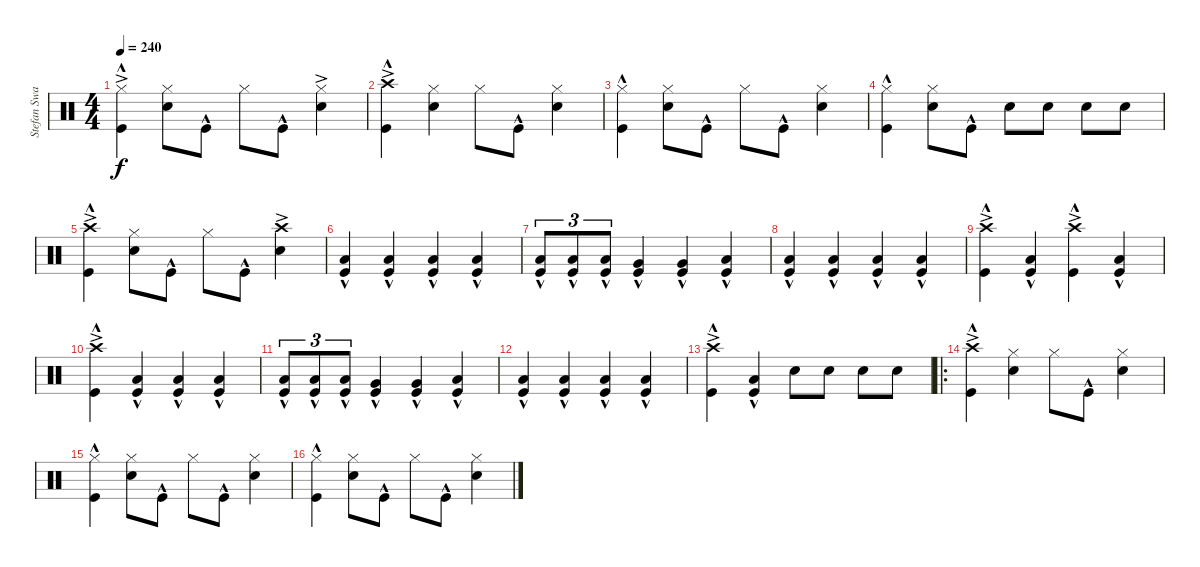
\track ("Stefan Swarztmann" "Stefan Swa") {instrument percussion}
\staff {score}
\articulation defaults
\ts (4 4)
\tempo 240
\clef neutral
\ks c
("Hi-Hat (closed)"{ac} "Kick (hit)"{hac}).4{dy f} ("Hi-Hat (closed)" "Snare (hit) 2").8 "Kick (hit)"{hac}.8 "Hi-Hat (closed)".8 "Kick (hit)"{hac}.8 ("Hi-Hat (closed)"{ac} "Snare (hit) 2").4 |
("Crash high (hit)"{ac} "Kick (hit)"{hac}).4 ("Hi-Hat (closed)" "Snare (hit) 2").4 "Hi-Hat (closed)".8 "Kick (hit)"{hac}.8 ("Hi-Hat (closed)" "Snare (hit) 2").4 |
("Hi-Hat (closed)" "Kick (hit)"{hac}).4 ("Hi-Hat (closed)" "Snare (hit) 2").8 "Kick (hit)"{hac}.8 "Hi-Hat (closed)".8 "Kick (hit)"{hac}.8 ("Hi-Hat (closed)" "Snare (hit) 2").4 |
("Hi-Hat (closed)" "Kick (hit)"{hac}).4 ("Hi-Hat (closed)" "Snare (hit) 2").8 "Kick (hit)"{hac}.8 "Snare (hit) 2".8 "Snare (hit) 2".8 "Snare (hit) 2".8 "Snare (hit) 2".8 |
("Crash high (hit)"{ac} "Kick (hit)"{hac}).4 ("Hi-Hat (closed)" "Snare (hit) 2").8 "Kick (hit)"{hac}.8 "Hi-Hat (closed)".8 "Kick (hit)"{hac}.8 ("Crash high (hit)"{ac} "Snare (hit) 2").4 |
("Low Floor Tom (hit)"{hac} "Kick (hit)"{hac}).4 ("Low Floor Tom (hit)"{hac} "Kick (hit)"{hac}).4 ("Low Floor Tom (hit)"{hac} "Kick (hit)"{hac}).4 ("Low Floor Tom (hit)"{hac} "Kick (hit)"{hac}).4 |
("Low Tom (hit)"{hac} "Kick (hit)"{hac}).8{tu (3 2)} ("Low Tom (hit)"{hac} "Kick (hit)"{hac}).8{tu (3 2)} ("Low Tom (hit)"{hac} "Kick (hit)"{hac}).8{tu (3 2)} ("Very Low Tom (hit)"{hac} "Kick (hit)"{hac}).4 ("Very Low Tom (hit)"{hac} "Kick (hit)"{hac}).4 ("Low Floor Tom (hit)"{hac} "Kick (hit)"{hac}).4 |
("Low Floor Tom (hit)"{hac} "Kick (hit)"{hac}).4 ("Low Floor Tom (hit)"{hac} "Kick (hit)"{hac}).4 ("Low Floor Tom (hit)"{hac} "Kick (hit)"{hac}).4 ("Low Floor Tom (hit)"{hac} "Kick (hit)"{hac}).4 |
("Crash high (hit)"{ac} "Kick (hit)"{hac}).4 ("Low Floor Tom (hit)"{hac} "Kick (hit)"{hac}).4 ("Crash high (hit)"{ac} "Kick (hit)"{hac}).4 ("Low Floor Tom (hit)"{hac} "Kick (hit)"{hac}).4 |
("Crash high (hit)"{ac} "Kick (hit)"{hac}).4 ("Low Floor Tom (hit)"{hac} "Kick (hit)"{hac}).4 ("Low Floor Tom (hit)"{hac} "Kick (hit)"{hac}).4 ("Low Floor Tom (hit)"{hac} "Kick (hit)"{hac}).4 |
("Low Tom (hit)"{hac} "Kick (hit)"{hac}).8{tu (3 2)} ("Low Tom (hit)"{hac} "Kick (hit)"{hac}).8{tu (3 2)} ("Low Tom (hit)"{hac} "Kick (hit)"{hac}).8{tu (3 2)} ("Very Low Tom (hit)"{hac} "Kick (hit)"{hac}).4 ("Very Low Tom (hit)"{hac} "Kick (hit)"{hac}).4 ("Low Floor Tom (hit)"{hac} "Kick (hit)"{hac}).4 |
("Low Floor Tom (hit)"{hac} "Kick (hit)"{hac}).4 ("Low Floor Tom (hit)"{hac} "Kick (hit)"{hac}).4 ("Low Floor Tom (hit)"{hac} "Kick (hit)"{hac}).4 ("Low Floor Tom (hit)"{hac} "Kick (hit)"{hac}).4 |
("Crash high (hit)"{ac} "Kick (hit)"{hac}).4 ("Low Floor Tom (hit)"{hac} "Kick (hit)"{hac}).4 "Snare (hit) 2".8 "Snare (hit) 2".8 "Snare (hit) 2".8 "Snare (hit) 2".8 |
\ro
("Crash high (hit)"{ac} "Kick (hit)"{hac}).4 ("Hi-Hat (closed)" "Snare (hit) 2").4 "Hi-Hat (closed)".8 "Kick (hit)"{hac}.8 ("Hi-Hat (closed)" "Snare (hit) 2").4 |
("Hi-Hat (closed)" "Kick (hit)"{hac}).4 ("Hi-Hat (closed)" "Snare (hit) 2").8 "Kick (hit)"{hac}.8 "Hi-Hat (closed)".8 "Kick (hit)"{hac}.8 ("Hi-Hat (closed)" "Snare (hit) 2").4 |
("Hi-Hat (closed)" "Kick (hit)"{hac}).4 ("Hi-Hat (closed)" "Snare (hit) 2").8 "Kick (hit)"{hac}.8 "Hi-Hat (closed)".8 "Kick (hit)"{hac}.8 ("Hi-Hat (closed)" "Snare (hit) 2").4
